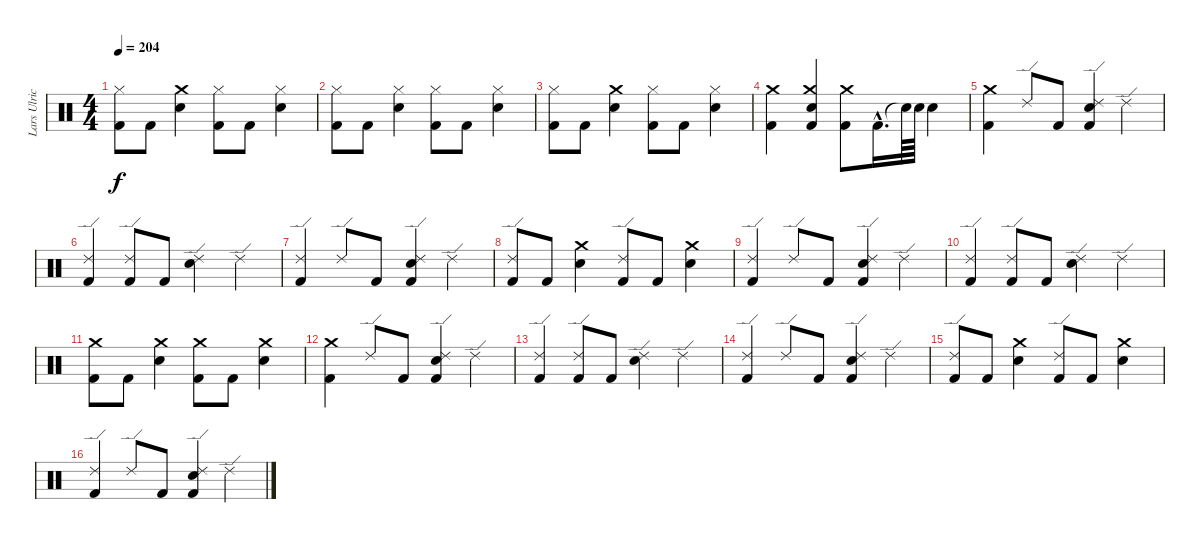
\track ("Lars Ulrich (Drums)" "Lars Ulric") {instrument percussion}
\staff {score}
\articulation defaults
\ts (4 4)
\tempo 204
\clef neutral
\ks c
("Kick (hit) 2" "Hi-Hat (closed)").8{dy f} "Kick (hit) 2".8 ("Crash medium (hit)" "Snare (hit) 2").4 ("Kick (hit) 2" "Hi-Hat (closed)").8 "Kick (hit) 2".8 ("Snare (hit) 2" "Hi-Hat (closed)").4 |
("Kick (hit) 2" "Hi-Hat (closed)").8 "Kick (hit) 2".8 ("Snare (hit) 2" "Hi-Hat (closed)").4 ("Kick (hit) 2" "Hi-Hat (closed)").8 "Kick (hit) 2".8 ("Snare (hit) 2" "Hi-Hat (closed)").4 |
("Kick (hit) 2" "Hi-Hat (closed)").8 "Kick (hit) 2".8 ("Crash medium (hit)" "Snare (hit) 2").4 ("Kick (hit) 2" "Hi-Hat (closed)").8 "Kick (hit) 2".8 ("Snare (hit) 2" "Hi-Hat (closed)").4 |
("Kick (hit) 2" "Crash medium (hit)").4 ("Kick (hit) 2" "Snare (hit) 2" "Crash medium (hit)").4 ("Kick (hit) 2" "Crash medium (hit)").8 "Kick (hit) 2"{hac}.16{d} "Snare (hit)"{t}.64 "Snare (hit) 2".64 "Snare (hit) 2".4 |
("Kick (hit) 2" "Crash medium (hit)").4 "Ride (edge) 2".8 "Kick (hit) 2".8 ("Kick (hit) 2" "Snare (hit) 2" "Ride (edge) 2").4 "Ride (edge) 2".4 |
("Kick (hit) 2" "Ride (edge) 2").4 ("Ride (edge) 2" "Kick (hit) 2").8 "Kick (hit) 2".8 ("Snare (hit) 2" "Ride (edge) 2").4 "Ride (edge) 2".4 |
("Kick (hit) 2" "Ride (edge) 2").4 "Ride (edge) 2".8 "Kick (hit) 2".8 ("Ride (edge) 2" "Snare (hit) 2" "Kick (hit) 2").4 "Ride (edge) 2".4 |
("Ride (edge) 2" "Kick (hit) 2").8 "Kick (hit) 2".8 ("Snare (hit) 2" "Crash medium (hit)").4 ("Ride (edge) 2" "Kick (hit) 2").8 "Kick (hit) 2".8 ("Snare (hit) 2" "Crash medium (hit)").4 |
("Ride (edge) 2" "Kick (hit) 2").4 "Ride (edge) 2".8 "Kick (hit) 2".8 ("Ride (edge) 2" "Snare (hit) 2" "Kick (hit) 2").4 "Ride (edge) 2".4 |
("Kick (hit) 2" "Ride (edge) 2").4 ("Ride (edge) 2" "Kick (hit) 2").8 "Kick (hit) 2".8 ("Snare (hit) 2" "Ride (edge) 2").4 "Ride (edge) 2".4 |
("Kick (hit) 2" "Crash medium (hit)").8 "Kick (hit) 2".8 ("Snare (hit) 2" "Crash medium (hit)").4 ("Kick (hit) 2" "Crash medium (hit)").8 "Kick (hit) 2".8 ("Snare (hit) 2" "Crash medium (hit)").4 |
("Kick (hit) 2" "Crash medium (hit)").4 "Ride (edge) 2".8 "Kick (hit) 2".8 ("Kick (hit) 2" "Snare (hit) 2" "Ride (edge) 2").4 "Ride (edge) 2".4 |
("Kick (hit) 2" "Ride (edge) 2").4 ("Ride (edge) 2" "Kick (hit) 2").8 "Kick (hit) 2".8 ("Snare (hit) 2" "Ride (edge) 2").4 "Ride (edge) 2".4 |
("Kick (hit) 2" "Ride (edge) 2").4 "Ride (edge) 2".8 "Kick (hit) 2".8 ("Ride (edge) 2" "Snare (hit) 2" "Kick (hit) 2").4 "Ride (edge) 2".4 |
("Ride (edge) 2" "Kick (hit) 2").8 "Kick (hit) 2".8 ("Snare (hit) 2" "Crash medium (hit)").4 ("Ride (edge) 2" "Kick (hit) 2").8 "Kick (hit) 2".8 ("Snare (hit) 2" "Crash medium (hit)").4 |
("Ride (edge) 2" "Kick (hit) 2").4 "Ride (edge) 2".8 "Kick (hit) 2".8 ("Ride (edge) 2" "Snare (hit) 2" "Kick (hit) 2").4 "Ride (edge) 2".4
